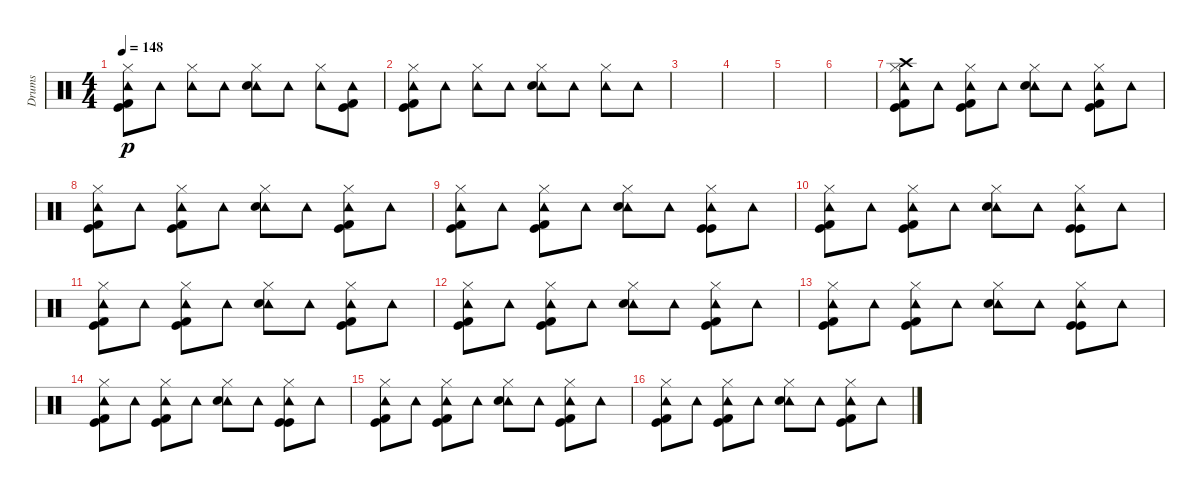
\track ("Drums" "Drums") {instrument percussion}
\staff {score}
\articulation defaults
\ts (4 4)
\tempo 148
\clef neutral
\ks c
("Hi-Hat (closed)" "Tambourine (hit)" "Kick (hit) 2" "Kick (hit)").8{dy p} "Tambourine (hit)".8 ("Hi-Hat (closed)" "Tambourine (hit)").8 "Tambourine (hit)".8 ("Hi-Hat (closed)" "Tambourine (hit)" "Electric Snare (hit)").8 "Tambourine (hit)".8 ("Hi-Hat (closed)" "Tambourine (hit)").8 ("Tambourine (hit)" "Kick (hit) 2" "Kick (hit)").8 |
("Hi-Hat (closed)" "Tambourine (hit)" "Kick (hit) 2" "Kick (hit)").8 "Tambourine (hit)".8 ("Hi-Hat (closed)" "Tambourine (hit)").8 "Tambourine (hit)".8 ("Hi-Hat (closed)" "Tambourine (hit)" "Electric Snare (hit)").8 "Tambourine (hit)".8 ("Hi-Hat (closed)" "Tambourine (hit)").8 "Tambourine (hit)".8 |
|
|
|
|
("Hi-Hat (closed)" "Tambourine (hit)" "Crash high (hit)" "Kick (hit) 2" "Kick (hit)").8 "Tambourine (hit)".8 ("Hi-Hat (closed)" "Tambourine (hit)" "Kick (hit) 2" "Kick (hit)").8 "Tambourine (hit)".8 ("Hi-Hat (closed)" "Tambourine (hit)" "Electric Snare (hit)").8 "Tambourine (hit)".8 ("Hi-Hat (closed)" "Tambourine (hit)" "Kick (hit) 2" "Kick (hit)").8 "Tambourine (hit)".8 |
("Hi-Hat (closed)" "Tambourine (hit)" "Kick (hit) 2" "Kick (hit)").8 "Tambourine (hit)".8 ("Hi-Hat (closed)" "Tambourine (hit)" "Kick (hit)" "Kick (hit) 2").8 "Tambourine (hit)".8 ("Hi-Hat (closed)" "Tambourine (hit)" "Electric Snare (hit)").8 "Tambourine (hit)".8 ("Hi-Hat (closed)" "Tambourine (hit)" "Kick (hit)" "Kick (hit) 2").8 "Tambourine (hit)".8 |
("Hi-Hat (closed)" "Tambourine (hit)" "Kick (hit) 2" "Kick (hit)").8 "Tambourine (hit)".8 ("Hi-Hat (closed)" "Tambourine (hit)" "Kick (hit) 2" "Kick (hit)").8 "Tambourine (hit)".8 ("Hi-Hat (closed)" "Tambourine (hit)" "Electric Snare (hit)").8 "Tambourine (hit)".8 ("Hi-Hat (closed)" "Tambourine (hit)" "Kick (hit)" "Kick (hit)").8 "Tambourine (hit)".8 |
("Hi-Hat (closed)" "Tambourine (hit)" "Kick (hit) 2" "Kick (hit)").8 "Tambourine (hit)".8 ("Hi-Hat (closed)" "Tambourine (hit)" "Kick (hit) 2" "Kick (hit)").8 "Tambourine (hit)".8 ("Hi-Hat (closed)" "Tambourine (hit)" "Electric Snare (hit)").8 "Tambourine (hit)".8 ("Hi-Hat (closed)" "Tambourine (hit)" "Kick (hit)" "Kick (hit)").8 "Tambourine (hit)".8 |
("Hi-Hat (closed)" "Tambourine (hit)" "Kick (hit) 2" "Kick (hit)").8 "Tambourine (hit)".8 ("Hi-Hat (closed)" "Tambourine (hit)" "Kick (hit) 2" "Kick (hit)").8 "Tambourine (hit)".8 ("Hi-Hat (closed)" "Tambourine (hit)" "Electric Snare (hit)").8 "Tambourine (hit)".8 ("Hi-Hat (closed)" "Tambourine (hit)" "Kick (hit) 2" "Kick (hit)").8 "Tambourine (hit)".8 |
("Hi-Hat (closed)" "Tambourine (hit)" "Kick (hit) 2" "Kick (hit)").8 "Tambourine (hit)".8 ("Hi-Hat (closed)" "Tambourine (hit)" "Kick (hit)" "Kick (hit) 2").8 "Tambourine (hit)".8 ("Hi-Hat (closed)" "Tambourine (hit)" "Electric Snare (hit)").8 "Tambourine (hit)".8 ("Hi-Hat (closed)" "Tambourine (hit)" "Kick (hit)" "Kick (hit) 2").8 "Tambourine (hit)".8 |
("Hi-Hat (closed)" "Tambourine (hit)" "Kick (hit) 2" "Kick (hit)").8 "Tambourine (hit)".8 ("Hi-Hat (closed)" "Tambourine (hit)" "Kick (hit) 2" "Kick (hit)").8 "Tambourine (hit)".8 ("Hi-Hat (closed)" "Tambourine (hit)" "Electric Snare (hit)").8 "Tambourine (hit)".8 ("Hi-Hat (closed)" "Tambourine (hit)" "Kick (hit)" "Kick (hit)").8 "Tambourine (hit)".8 |
("Hi-Hat (closed)" "Tambourine (hit)" "Kick (hit) 2" "Kick (hit)").8 "Tambourine (hit)".8 ("Hi-Hat (closed)" "Tambourine (hit)" "Kick (hit) 2" "Kick (hit)").8 "Tambourine (hit)".8 ("Hi-Hat (closed)" "Tambourine (hit)" "Electric Snare (hit)").8 "Tambourine (hit)".8 ("Hi-Hat (closed)" "Tambourine (hit)" "Kick (hit)" "Kick (hit)").8 "Tambourine (hit)".8 |
("Hi-Hat (closed)" "Tambourine (hit)" "Kick (hit) 2" "Kick (hit)").8 "Tambourine (hit)".8 ("Hi-Hat (closed)" "Tambourine (hit)" "Kick (hit) 2" "Kick (hit)").8 "Tambourine (hit)".8 ("Hi-Hat (closed)" "Tambourine (hit)" "Electric Snare (hit)").8 "Tambourine (hit)".8 ("Hi-Hat (closed)" "Tambourine (hit)" "Kick (hit) 2" "Kick (hit)").8 "Tambourine (hit)".8 |
("Hi-Hat (closed)" "Tambourine (hit)" "Kick (hit) 2" "Kick (hit)").8 "Tambourine (hit)".8 ("Hi-Hat (closed)" "Tambourine (hit)" "Kick (hit)" "Kick (hit) 2").8 "Tambourine (hit)".8 ("Hi-Hat (closed)" "Tambourine (hit)" "Electric Snare (hit)").8 "Tambourine (hit)".8 ("Hi-Hat (closed)" "Tambourine (hit)" "Kick (hit)" "Kick (hit) 2").8 "Tambourine (hit)".8
